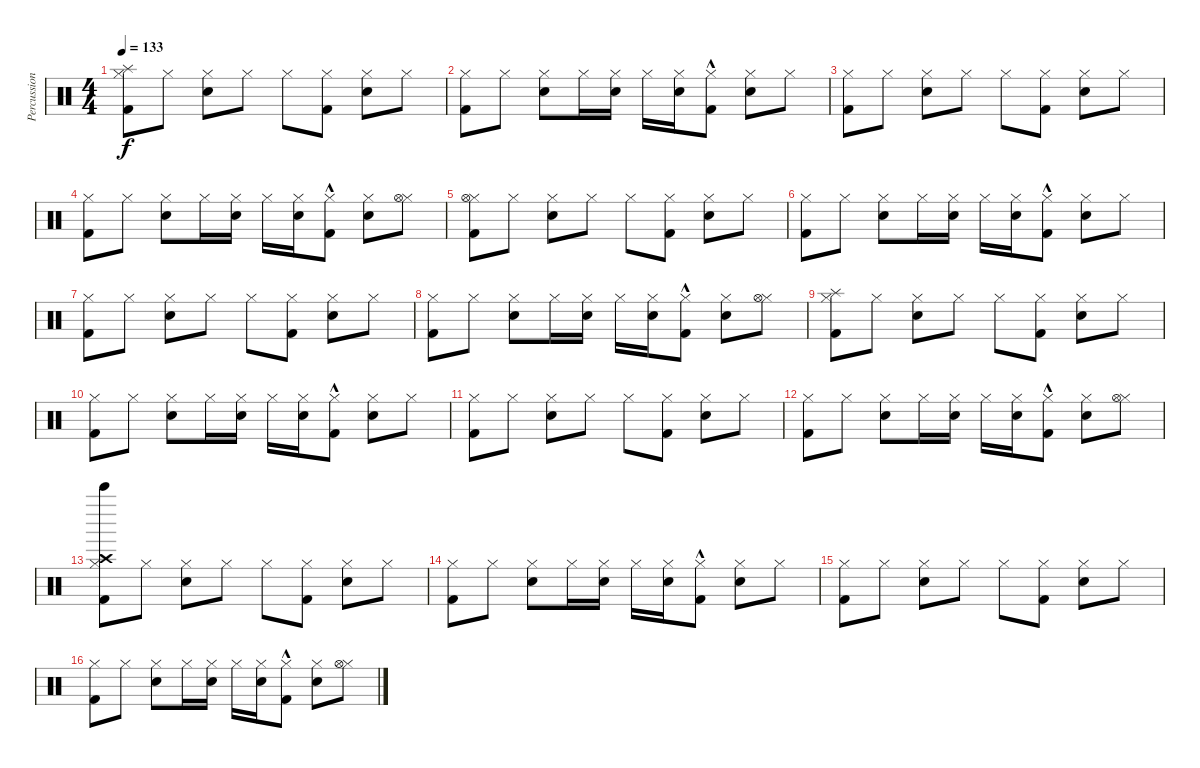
\track ("Percussion" "Percussion") {instrument percussion}
\staff {score}
\articulation defaults
\ts (4 4)
\tempo 133
\clef neutral
\ks c
("Hi-Hat (closed)" "Splash (hit)" "Kick (hit) 2").8{dy f} "Hi-Hat (closed)".8 ("Hi-Hat (closed)" "Snare (hit) 2").8 "Hi-Hat (closed)".8 "Hi-Hat (closed)".8 ("Hi-Hat (closed)" "Kick (hit) 2").8 ("Hi-Hat (closed)" "Snare (hit) 2").8 "Hi-Hat (closed)".8 |
("Hi-Hat (closed)" "Kick (hit) 2").8 "Hi-Hat (closed)".8 ("Hi-Hat (closed)" "Snare (hit) 2").8 "Hi-Hat (closed)".16 ("Hi-Hat (closed)" "Snare (hit) 2").16 "Hi-Hat (closed)".16 ("Hi-Hat (closed)" "Snare (hit) 2").16 ("Hi-Hat (closed)" "Kick (hit) 2"{hac}).8 ("Hi-Hat (closed)" "Snare (hit) 2").8 "Hi-Hat (closed)".8 |
("Hi-Hat (closed)" "Kick (hit) 2").8 "Hi-Hat (closed)".8 ("Hi-Hat (closed)" "Snare (hit) 2").8 "Hi-Hat (closed)".8 "Hi-Hat (closed)".8 ("Hi-Hat (closed)" "Kick (hit) 2").8 ("Hi-Hat (closed)" "Snare (hit) 2").8 "Hi-Hat (closed)".8 |
("Hi-Hat (closed)" "Kick (hit) 2").8 "Hi-Hat (closed)".8 ("Hi-Hat (closed)" "Snare (hit) 2").8 "Hi-Hat (closed)".16 ("Hi-Hat (closed)" "Snare (hit) 2").16 "Hi-Hat (closed)".16 ("Hi-Hat (closed)" "Snare (hit) 2").16 ("Hi-Hat (closed)" "Kick (hit) 2"{hac}).8 ("Hi-Hat (closed)" "Snare (hit) 2").8 ("Hi-Hat (closed)" "Hi-Hat (open)").8 |
("Hi-Hat (closed)" "Hi-Hat (open)" "Kick (hit) 2").8 "Hi-Hat (closed)".8 ("Hi-Hat (closed)" "Snare (hit) 2").8 "Hi-Hat (closed)".8 "Hi-Hat (closed)".8 ("Hi-Hat (closed)" "Kick (hit) 2").8 ("Hi-Hat (closed)" "Snare (hit) 2").8 "Hi-Hat (closed)".8 |
("Hi-Hat (closed)" "Kick (hit) 2").8 "Hi-Hat (closed)".8 ("Hi-Hat (closed)" "Snare (hit) 2").8 "Hi-Hat (closed)".16 ("Hi-Hat (closed)" "Snare (hit) 2").16 "Hi-Hat (closed)".16 ("Hi-Hat (closed)" "Snare (hit) 2").16 ("Hi-Hat (closed)" "Kick (hit) 2"{hac}).8 ("Hi-Hat (closed)" "Snare (hit) 2").8 "Hi-Hat (closed)".8 |
("Hi-Hat (closed)" "Kick (hit) 2").8 "Hi-Hat (closed)".8 ("Hi-Hat (closed)" "Snare (hit) 2").8 "Hi-Hat (closed)".8 "Hi-Hat (closed)".8 ("Hi-Hat (closed)" "Kick (hit) 2").8 ("Hi-Hat (closed)" "Snare (hit) 2").8 "Hi-Hat (closed)".8 |
("Hi-Hat (closed)" "Kick (hit) 2").8 "Hi-Hat (closed)".8 ("Hi-Hat (closed)" "Snare (hit) 2").8 "Hi-Hat (closed)".16 ("Hi-Hat (closed)" "Snare (hit) 2").16 "Hi-Hat (closed)".16 ("Hi-Hat (closed)" "Snare (hit) 2").16 ("Hi-Hat (closed)" "Kick (hit) 2"{hac}).8 ("Hi-Hat (closed)" "Snare (hit) 2").8 ("Hi-Hat (closed)" "Hi-Hat (open)").8 |
("Hi-Hat (closed)" "Splash (hit)" "Kick (hit) 2").8 "Hi-Hat (closed)".8 ("Hi-Hat (closed)" "Snare (hit) 2").8 "Hi-Hat (closed)".8 "Hi-Hat (closed)".8 ("Hi-Hat (closed)" "Kick (hit) 2").8 ("Hi-Hat (closed)" "Snare (hit) 2").8 "Hi-Hat (closed)".8 |
("Hi-Hat (closed)" "Kick (hit) 2").8 "Hi-Hat (closed)".8 ("Hi-Hat (closed)" "Snare (hit) 2").8 "Hi-Hat (closed)".16 ("Hi-Hat (closed)" "Snare (hit) 2").16 "Hi-Hat (closed)".16 ("Hi-Hat (closed)" "Snare (hit) 2").16 ("Hi-Hat (closed)" "Kick (hit) 2"{hac}).8 ("Hi-Hat (closed)" "Snare (hit) 2").8 "Hi-Hat (closed)".8 |
("Hi-Hat (closed)" "Kick (hit) 2").8 "Hi-Hat (closed)".8 ("Hi-Hat (closed)" "Snare (hit) 2").8 "Hi-Hat (closed)".8 "Hi-Hat (closed)".8 ("Hi-Hat (closed)" "Kick (hit) 2").8 ("Hi-Hat (closed)" "Snare (hit) 2").8 "Hi-Hat (closed)".8 |
("Hi-Hat (closed)" "Kick (hit) 2").8 "Hi-Hat (closed)".8 ("Hi-Hat (closed)" "Snare (hit) 2").8 "Hi-Hat (closed)".16 ("Hi-Hat (closed)" "Snare (hit) 2").16 "Hi-Hat (closed)".16 ("Hi-Hat (closed)" "Snare (hit) 2").16 ("Hi-Hat (closed)" "Kick (hit) 2"{hac}).8 ("Hi-Hat (closed)" "Snare (hit) 2").8 ("Hi-Hat (closed)" "Hi-Hat (open)").8 |
("Hi-Hat (closed)" "Bell Tree (hit)" "Crash high (hit)" "Kick (hit) 2").8 "Hi-Hat (closed)".8 ("Hi-Hat (closed)" "Snare (hit) 2").8 "Hi-Hat (closed)".8 "Hi-Hat (closed)".8 ("Hi-Hat (closed)" "Kick (hit) 2").8 ("Hi-Hat (closed)" "Snare (hit) 2").8 "Hi-Hat (closed)".8 |
("Hi-Hat (closed)" "Kick (hit) 2").8 "Hi-Hat (closed)".8 ("Hi-Hat (closed)" "Snare (hit) 2").8 "Hi-Hat (closed)".16 ("Hi-Hat (closed)" "Snare (hit) 2").16 "Hi-Hat (closed)".16 ("Hi-Hat (closed)" "Snare (hit) 2").16 ("Hi-Hat (closed)" "Kick (hit) 2"{hac}).8 ("Hi-Hat (closed)" "Snare (hit) 2").8 "Hi-Hat (closed)".8 |
("Hi-Hat (closed)" "Kick (hit) 2").8 "Hi-Hat (closed)".8 ("Hi-Hat (closed)" "Snare (hit) 2").8 "Hi-Hat (closed)".8 "Hi-Hat (closed)".8 ("Hi-Hat (closed)" "Kick (hit) 2").8 ("Hi-Hat (closed)" "Snare (hit) 2").8 "Hi-Hat (closed)".8 |
("Hi-Hat (closed)" "Kick (hit) 2").8 "Hi-Hat (closed)".8 ("Hi-Hat (closed)" "Snare (hit) 2").8 "Hi-Hat (closed)".16 ("Hi-Hat (closed)" "Snare (hit) 2").16 "Hi-Hat (closed)".16 ("Hi-Hat (closed)" "Snare (hit) 2").16 ("Hi-Hat (closed)" "Kick (hit) 2"{hac}).8 ("Hi-Hat (closed)" "Snare (hit) 2").8 ("Hi-Hat (closed)" "Hi-Hat (open)").8
